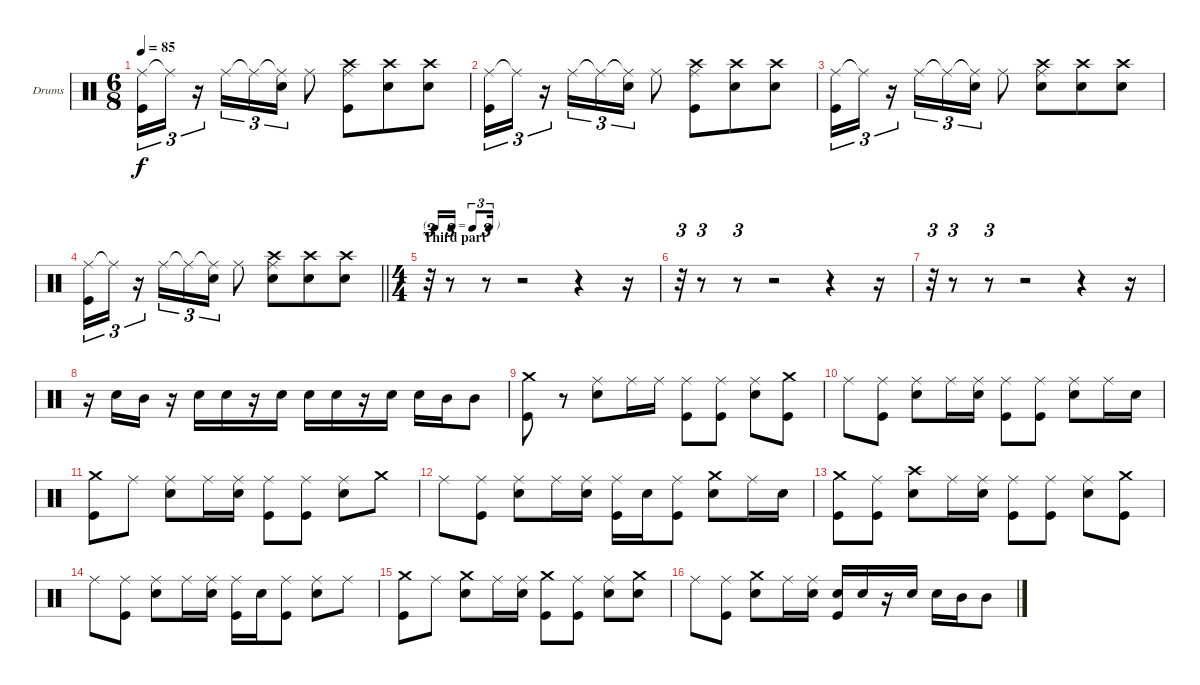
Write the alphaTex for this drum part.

\bracketExtendMode groupsimilarinstruments
\firstSystemTrackNameOrientation horizontal
\otherSystemsTrackNameOrientation horizontal
\track ("Drumkit" "Drums") {instrument percussion}
\staff {score}
\articulation defaults
\ts (6 8)
\tempo 85
\clef neutral
\ks c
("Ride (middle)" "Kick (hit)").16{tu (3 2) dy f} "Ride (middle)"{t}.16{tu (3 2)} r.16{tu (3 2)} "Ride (middle)".16{tu (3 2)} "Ride (middle)"{t}.16{tu (3 2)} ("Ride (middle)"{t} "Snare (hit) 2").16{tu (3 2)} "Ride (middle)".8 ("Crash high (hit)" "Ride (middle)" "Kick (hit)").8 ("Crash high (hit)" "Snare (hit) 2").8 ("Crash high (hit)" "Snare (hit) 2").8 |
("Ride (middle)" "Kick (hit)").16{tu (3 2)} "Ride (middle)"{t}.16{tu (3 2)} r.16{tu (3 2)} "Ride (middle)".16{tu (3 2)} "Ride (middle)"{t}.16{tu (3 2)} ("Ride (middle)"{t} "Snare (hit) 2").16{tu (3 2)} "Ride (middle)".8 ("Crash high (hit)" "Ride (middle)" "Kick (hit)").8 ("Crash high (hit)" "Snare (hit) 2").8 ("Crash high (hit)" "Snare (hit) 2").8 |
("Ride (middle)" "Kick (hit)").16{tu (3 2)} "Ride (middle)"{t}.16{tu (3 2)} r.16{tu (3 2)} "Ride (middle)".16{tu (3 2)} "Ride (middle)"{t}.16{tu (3 2)} ("Ride (middle)"{t} "Snare (hit) 2").16{tu (3 2)} "Ride (middle)".8 ("Crash high (hit)" "Ride (middle)" "Snare (hit) 2").8 ("Crash high (hit)" "Snare (hit) 2").8 ("Crash high (hit)" "Snare (hit) 2").8 |
\barLineRight lightlight
("Ride (middle)" "Kick (hit)").16{tu (3 2)} "Ride (middle)"{t}.16{tu (3 2)} r.16{tu (3 2)} "Ride (middle)".16{tu (3 2)} "Ride (middle)"{t}.16{tu (3 2)} ("Ride (middle)"{t} "Snare (hit) 2").16{tu (3 2)} "Ride (middle)".8 ("Crash high (hit)" "Ride (middle)" "Snare (hit) 2").8 ("Crash high (hit)" "Snare (hit) 2").8 ("Crash high (hit)" "Snare (hit) 2").8 |
\ts (4 4)
\beaming (8 2 2 2 2)
\tf triplet16th
\section ("" "Third part")
r.32{tu (3 2)} r.8{tu (3 2)} r.8{tu (3 2)} r.2 r.4 r.16 |
r.32{tu (3 2)} r.8{tu (3 2)} r.8{tu (3 2)} r.2 r.4 r.16 |
r.32{tu (3 2)} r.8{tu (3 2)} r.8{tu (3 2)} r.2 r.4 r.16 |
r.16 "Snare (hit) 2".16 "Mid Tom (hit)".16 r.16 "Snare (hit) 2".16 "Snare (hit) 2".16 r.16 "Snare (hit) 2".16 "Snare (hit) 2".16 "Snare (hit) 2".16 r.16 "Snare (hit) 2".16 "Snare (hit) 2".16 "Mid Tom (hit)".16 "Mid Tom (hit)".8 |
("Crash medium (hit)" "Kick (hit)").8 r.8 ("Ride (middle)" "Snare (hit) 2").8 "Ride (middle)".16 "Ride (middle)".16 ("Ride (middle)" "Kick (hit)").8 ("Ride (middle)" "Kick (hit)").8 ("Ride (middle)" "Snare (hit) 2").8 ("Crash medium (hit)" "Kick (hit)").8 |
"Ride (middle)".8 ("Ride (middle)" "Kick (hit)").8 ("Ride (middle)" "Snare (hit) 2").8 "Ride (middle)".16 ("Ride (middle)" "Snare (hit) 2").16 ("Ride (middle)" "Kick (hit)").8 ("Ride (middle)" "Kick (hit)").8 ("Ride (middle)" "Snare (hit) 2").8 "Ride (middle)".16 "Snare (hit) 2".16 |
("Crash medium (hit)" "Kick (hit)").8 "Ride (middle)".8 ("Ride (middle)" "Snare (hit) 2").8 "Ride (middle)".16 ("Snare (hit) 2" "Ride (middle)").16 ("Ride (middle)" "Kick (hit)").8 ("Ride (middle)" "Kick (hit)").8 ("Ride (middle)" "Snare (hit) 2").8 "Crash medium (hit)".8 |
"Ride (middle)".8 ("Ride (middle)" "Kick (hit)").8 ("Ride (middle)" "Snare (hit) 2").8 "Ride (middle)".16 ("Snare (hit) 2" "Ride (middle)").16 ("Ride (middle)" "Kick (hit)").16 "Snare (hit) 2".16 ("Ride (middle)" "Kick (hit)").8 ("Snare (hit) 2" "Crash medium (hit)").8 "Ride (middle)".16 "Snare (hit) 2".16 |
("Crash medium (hit)" "Kick (hit)").8 ("Ride (middle)" "Kick (hit)").8 ("Snare (hit) 2" "Crash high (hit)").8 "Ride (middle)".16 ("Snare (hit) 2" "Ride (middle)").16 ("Ride (middle)" "Kick (hit)").8 ("Ride (middle)" "Kick (hit)").8 ("Ride (middle)" "Snare (hit) 2").8 ("Crash medium (hit)" "Kick (hit)").8 |
"Ride (middle)".8 ("Ride (middle)" "Kick (hit)").8 ("Ride (middle)" "Snare (hit) 2").8 "Ride (middle)".16 ("Snare (hit) 2" "Ride (middle)").16 ("Ride (middle)" "Kick (hit)").16 "Snare (hit) 2".16 ("Ride (middle)" "Kick (hit)").8 ("Ride (middle)" "Snare (hit) 2").8 "Ride (middle)".8 |
("Crash medium (hit)" "Kick (hit)").8 "Ride (middle)".8 ("Snare (hit) 2" "Crash medium (hit)").8 "Ride (middle)".16 ("Snare (hit) 2" "Ride (middle)").16 ("Kick (hit)" "Crash medium (hit)").8 ("Ride (middle)" "Kick (hit)").8 ("Ride (middle)" "Snare (hit) 2").8 ("Crash medium (hit)" "Snare (hit) 2").8 |
"Ride (middle)".8 ("Ride (middle)" "Kick (hit)").8 ("Snare (hit) 2" "Crash medium (hit)").8 "Ride (middle)".16 ("Snare (hit) 2" "Ride (middle)").16 ("Snare (hit) 2" "Kick (hit)").16 "Snare (hit) 2".16 r.16 "Snare (hit) 2".16 "Snare (hit) 2".16 "Mid Tom (hit)".16 "Mid Tom (hit)".8
